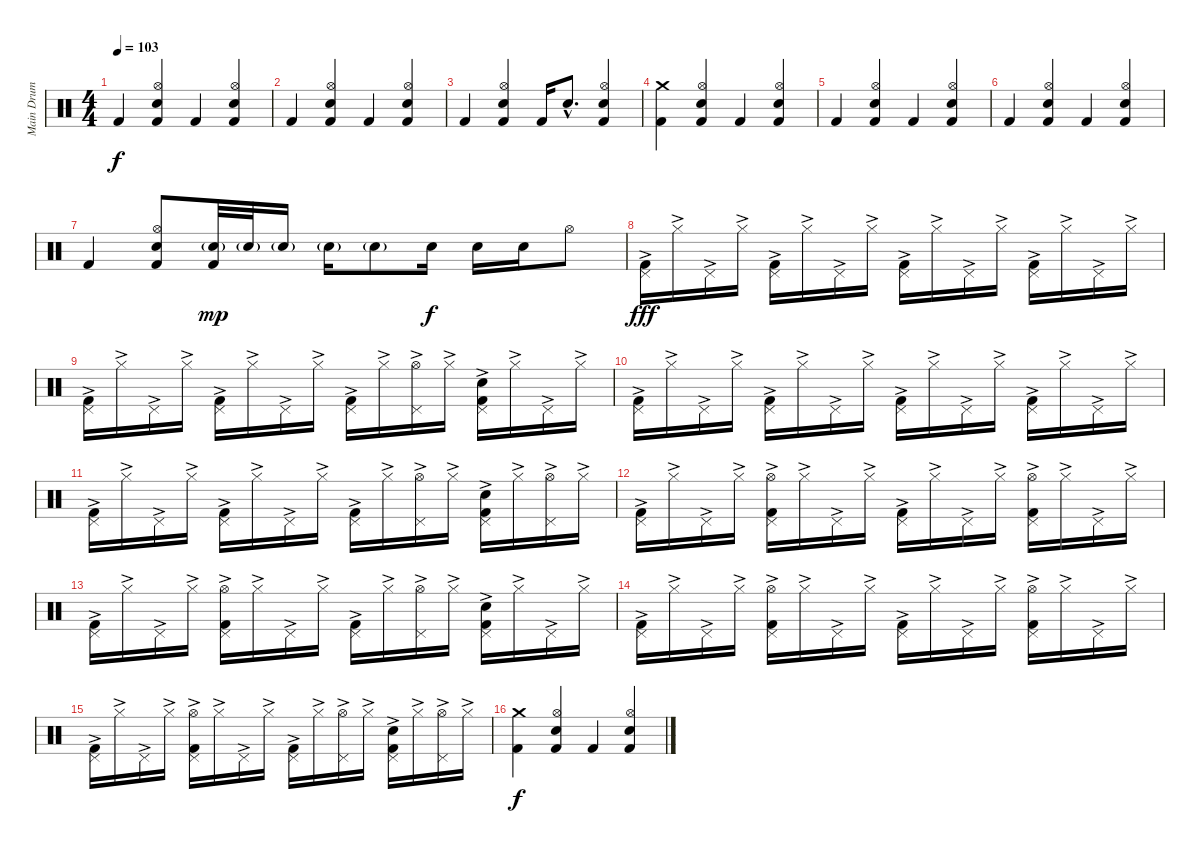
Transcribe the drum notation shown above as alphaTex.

\track ("Main Drum" "Main Drum") {instrument percussion}
\staff {score}
\articulation defaults
\ts (4 4)
\tempo 103
\clef neutral
\ks c "Kick (hit) 2".4{dy f}
("Hi-Hat (open)" "Electric Snare (hit)" "Kick (hit) 2").4 "Kick (hit) 2".4 ("Hi-Hat (open)" "Electric Snare (hit)" "Kick (hit) 2").4 |
"Kick (hit) 2".4 ("Hi-Hat (open)" "Electric Snare (hit)" "Kick (hit) 2").4 "Kick (hit) 2".4 ("Hi-Hat (open)" "Electric Snare (hit)" "Kick (hit) 2").4 |
"Kick (hit) 2".4 ("Hi-Hat (open)" "Electric Snare (hit)" "Kick (hit) 2").4 "Kick (hit) 2".16 "Electric Snare (hit)"{hac}.8{d} ("Hi-Hat (open)" "Electric Snare (hit)" "Kick (hit) 2").4 |
("Crash medium (hit)" "Kick (hit) 2").4 ("Hi-Hat (open)" "Electric Snare (hit)" "Kick (hit) 2").4 "Kick (hit) 2".4 ("Hi-Hat (open)" "Electric Snare (hit)" "Kick (hit) 2").4 |
"Kick (hit) 2".4 ("Hi-Hat (open)" "Electric Snare (hit)" "Kick (hit) 2").4 "Kick (hit) 2".4 ("Hi-Hat (open)" "Electric Snare (hit)" "Kick (hit) 2").4 |
"Kick (hit) 2".4 ("Hi-Hat (open)" "Electric Snare (hit)" "Kick (hit) 2").4 "Kick (hit) 2".4 ("Hi-Hat (open)" "Electric Snare (hit)" "Kick (hit) 2").4 |
"Kick (hit) 2".4 ("Hi-Hat (open)" "Electric Snare (hit)" "Kick (hit) 2").8 ("Electric Snare (hit)"{g} "Kick (hit) 2").32{dy mp} "Electric Snare (hit)"{g}.32 "Electric Snare (hit)"{g}.16 "Electric Snare (hit)"{g}.16 "Electric Snare (hit)"{g}.8 "Electric Snare (hit)".16{dy f} "Electric Snare (hit)".16 "Electric Snare (hit)".16 "Hi-Hat (open)".8 |
("Pedal Hi-Hat (hit)"{ac} "Kick (hit) 2"{ac}).16{dy fff} "Hi-Hat (closed)"{ac}.16 "Pedal Hi-Hat (hit)"{ac}.16 "Hi-Hat (closed)"{ac}.16 ("Pedal Hi-Hat (hit)"{ac} "Kick (hit) 2"{ac}).16 "Hi-Hat (closed)"{ac}.16 "Pedal Hi-Hat (hit)"{ac}.16 "Hi-Hat (closed)"{ac}.16 ("Pedal Hi-Hat (hit)"{ac} "Kick (hit) 2"{ac}).16 "Hi-Hat (closed)"{ac}.16 "Pedal Hi-Hat (hit)"{ac}.16 "Hi-Hat (closed)"{ac}.16 ("Pedal Hi-Hat (hit)"{ac} "Kick (hit) 2"{ac}).16 "Hi-Hat (closed)"{ac}.16 "Pedal Hi-Hat (hit)"{ac}.16 "Hi-Hat (closed)"{ac}.16 |
("Pedal Hi-Hat (hit)"{ac} "Kick (hit) 2"{ac}).16 "Hi-Hat (closed)"{ac}.16 "Pedal Hi-Hat (hit)"{ac}.16 "Hi-Hat (closed)"{ac}.16 ("Pedal Hi-Hat (hit)"{ac} "Kick (hit) 2"{ac}).16 "Hi-Hat (closed)"{ac}.16 "Pedal Hi-Hat (hit)"{ac}.16 "Hi-Hat (closed)"{ac}.16 ("Pedal Hi-Hat (hit)"{ac} "Kick (hit) 2"{ac}).16 "Hi-Hat (closed)"{ac}.16 ("Pedal Hi-Hat (hit)"{ac} "Hi-Hat (open)"{ac}).16 "Hi-Hat (closed)"{ac}.16 ("Pedal Hi-Hat (hit)"{ac} "Electric Snare (hit)"{ac} "Kick (hit) 2"{ac}).16 "Hi-Hat (closed)"{ac}.16 "Pedal Hi-Hat (hit)"{ac}.16 "Hi-Hat (closed)"{ac}.16 |
("Pedal Hi-Hat (hit)"{ac} "Kick (hit) 2"{ac}).16 "Hi-Hat (closed)"{ac}.16 "Pedal Hi-Hat (hit)"{ac}.16 "Hi-Hat (closed)"{ac}.16 ("Pedal Hi-Hat (hit)"{ac} "Kick (hit) 2"{ac}).16 "Hi-Hat (closed)"{ac}.16 "Pedal Hi-Hat (hit)"{ac}.16 "Hi-Hat (closed)"{ac}.16 ("Pedal Hi-Hat (hit)"{ac} "Kick (hit) 2"{ac}).16 "Hi-Hat (closed)"{ac}.16 "Pedal Hi-Hat (hit)"{ac}.16 "Hi-Hat (closed)"{ac}.16 ("Pedal Hi-Hat (hit)"{ac} "Kick (hit) 2"{ac}).16 "Hi-Hat (closed)"{ac}.16 "Pedal Hi-Hat (hit)"{ac}.16 "Hi-Hat (closed)"{ac}.16 |
("Pedal Hi-Hat (hit)"{ac} "Kick (hit) 2"{ac}).16 "Hi-Hat (closed)"{ac}.16 "Pedal Hi-Hat (hit)"{ac}.16 "Hi-Hat (closed)"{ac}.16 ("Pedal Hi-Hat (hit)"{ac} "Kick (hit) 2"{ac}).16 "Hi-Hat (closed)"{ac}.16 "Pedal Hi-Hat (hit)"{ac}.16 "Hi-Hat (closed)"{ac}.16 ("Pedal Hi-Hat (hit)"{ac} "Kick (hit) 2"{ac}).16 "Hi-Hat (closed)"{ac}.16 ("Pedal Hi-Hat (hit)"{ac} "Hi-Hat (open)"{ac}).16 "Hi-Hat (closed)"{ac}.16 ("Pedal Hi-Hat (hit)"{ac} "Electric Snare (hit)"{ac} "Kick (hit) 2"{ac}).16 "Hi-Hat (closed)"{ac}.16 ("Pedal Hi-Hat (hit)"{ac} "Hi-Hat (open)"{ac}).16 "Hi-Hat (closed)"{ac}.16 |
("Pedal Hi-Hat (hit)"{ac} "Kick (hit) 2"{ac}).16 "Hi-Hat (closed)"{ac}.16 "Pedal Hi-Hat (hit)"{ac}.16 "Hi-Hat (closed)"{ac}.16 ("Pedal Hi-Hat (hit)"{ac} "Hi-Hat (open)"{ac} "Kick (hit) 2"{ac}).16 "Hi-Hat (closed)"{ac}.16 "Pedal Hi-Hat (hit)"{ac}.16 "Hi-Hat (closed)"{ac}.16 ("Pedal Hi-Hat (hit)"{ac} "Kick (hit) 2"{ac}).16 "Hi-Hat (closed)"{ac}.16 "Pedal Hi-Hat (hit)"{ac}.16 "Hi-Hat (closed)"{ac}.16 ("Pedal Hi-Hat (hit)"{ac} "Hi-Hat (open)"{ac} "Kick (hit) 2"{ac}).16 "Hi-Hat (closed)"{ac}.16 "Pedal Hi-Hat (hit)"{ac}.16 "Hi-Hat (closed)"{ac}.16 |
("Pedal Hi-Hat (hit)"{ac} "Kick (hit) 2"{ac}).16 "Hi-Hat (closed)"{ac}.16 "Pedal Hi-Hat (hit)"{ac}.16 "Hi-Hat (closed)"{ac}.16 ("Pedal Hi-Hat (hit)"{ac} "Hi-Hat (open)"{ac} "Kick (hit) 2"{ac}).16 "Hi-Hat (closed)"{ac}.16 "Pedal Hi-Hat (hit)"{ac}.16 "Hi-Hat (closed)"{ac}.16 ("Pedal Hi-Hat (hit)"{ac} "Kick (hit) 2"{ac}).16 "Hi-Hat (closed)"{ac}.16 ("Pedal Hi-Hat (hit)"{ac} "Hi-Hat (open)"{ac}).16 "Hi-Hat (closed)"{ac}.16 ("Pedal Hi-Hat (hit)"{ac} "Electric Snare (hit)"{ac} "Kick (hit) 2"{ac}).16 "Hi-Hat (closed)"{ac}.16 "Pedal Hi-Hat (hit)"{ac}.16 "Hi-Hat (closed)"{ac}.16 |
("Pedal Hi-Hat (hit)"{ac} "Kick (hit) 2"{ac}).16 "Hi-Hat (closed)"{ac}.16 "Pedal Hi-Hat (hit)"{ac}.16 "Hi-Hat (closed)"{ac}.16 ("Pedal Hi-Hat (hit)"{ac} "Hi-Hat (open)"{ac} "Kick (hit) 2"{ac}).16 "Hi-Hat (closed)"{ac}.16 "Pedal Hi-Hat (hit)"{ac}.16 "Hi-Hat (closed)"{ac}.16 ("Pedal Hi-Hat (hit)"{ac} "Kick (hit) 2"{ac}).16 "Hi-Hat (closed)"{ac}.16 "Pedal Hi-Hat (hit)"{ac}.16 "Hi-Hat (closed)"{ac}.16 ("Pedal Hi-Hat (hit)"{ac} "Hi-Hat (open)"{ac} "Kick (hit) 2"{ac}).16 "Hi-Hat (closed)"{ac}.16 "Pedal Hi-Hat (hit)"{ac}.16 "Hi-Hat (closed)"{ac}.16 |
("Pedal Hi-Hat (hit)"{ac} "Kick (hit) 2"{ac}).16 "Hi-Hat (closed)"{ac}.16 "Pedal Hi-Hat (hit)"{ac}.16 "Hi-Hat (closed)"{ac}.16 ("Pedal Hi-Hat (hit)"{ac} "Hi-Hat (open)"{ac} "Kick (hit) 2"{ac}).16 "Hi-Hat (closed)"{ac}.16 "Pedal Hi-Hat (hit)"{ac}.16 "Hi-Hat (closed)"{ac}.16 ("Pedal Hi-Hat (hit)"{ac} "Kick (hit) 2"{ac}).16 "Hi-Hat (closed)"{ac}.16 ("Pedal Hi-Hat (hit)"{ac} "Hi-Hat (open)"{ac}).16 "Hi-Hat (closed)"{ac}.16 ("Pedal Hi-Hat (hit)"{ac} "Electric Snare (hit)"{ac} "Kick (hit) 2"{ac}).16 "Hi-Hat (closed)"{ac}.16 ("Pedal Hi-Hat (hit)"{ac} "Hi-Hat (open)"{ac}).16 "Hi-Hat (closed)"{ac}.16 |
("Crash medium (hit)" "Kick (hit) 2").4{dy f} ("Hi-Hat (open)" "Electric Snare (hit)" "Kick (hit) 2").4 "Kick (hit) 2".4 ("Hi-Hat (open)" "Electric Snare (hit)" "Kick (hit) 2").4
